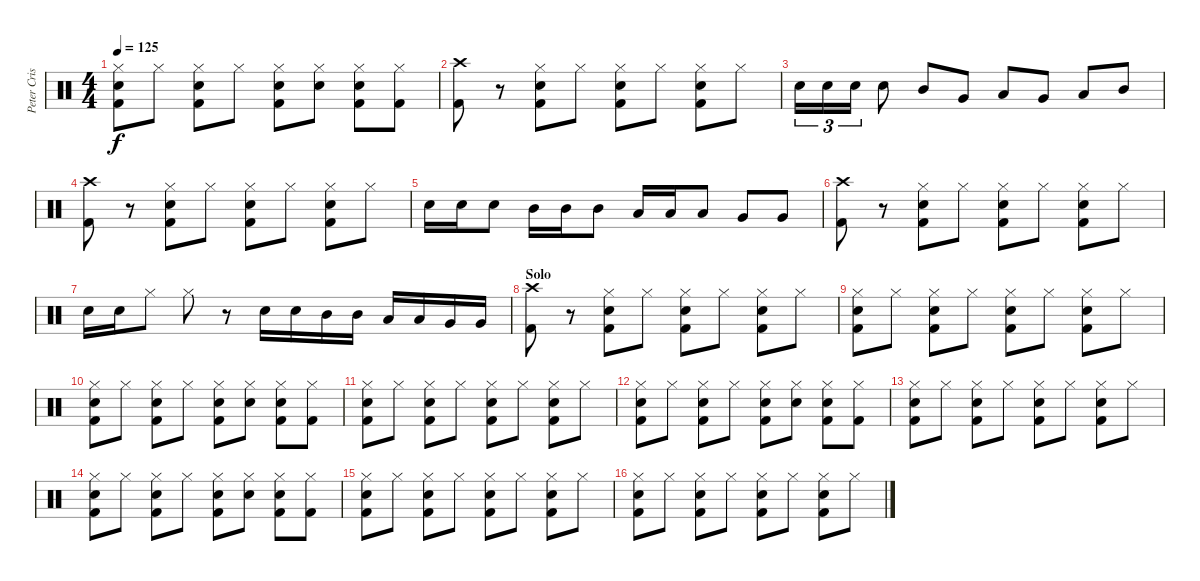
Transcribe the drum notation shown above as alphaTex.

\track ("Peter Criss" "Peter Cris") {instrument percussion}
\staff {score}
\articulation defaults
\ts (4 4)
\tempo 125
\clef neutral
\ks c
("Hi-Hat (closed)" "Electric Snare (hit)" "Kick (hit) 2").8{dy f} "Hi-Hat (closed)".8 ("Hi-Hat (closed)" "Electric Snare (hit)" "Kick (hit) 2").8 "Hi-Hat (closed)".8 ("Hi-Hat (closed)" "Electric Snare (hit)" "Kick (hit) 2").8 ("Hi-Hat (closed)" "Electric Snare (hit)").8 ("Hi-Hat (closed)" "Electric Snare (hit)" "Kick (hit) 2").8 ("Hi-Hat (closed)" "Kick (hit) 2").8 |
("Crash high (hit)" "Kick (hit) 2").8 r.8 ("Hi-Hat (closed)" "Electric Snare (hit)" "Kick (hit) 2").8 "Hi-Hat (closed)".8 ("Hi-Hat (closed)" "Electric Snare (hit)" "Kick (hit) 2").8 "Hi-Hat (closed)".8 ("Hi-Hat (closed)" "Electric Snare (hit)" "Kick (hit) 2").8 "Hi-Hat (closed)".8 |
"Electric Snare (hit)".16{tu (3 2)} "Electric Snare (hit)".16{tu (3 2)} "Electric Snare (hit)".16{tu (3 2)} "Electric Snare (hit)".8 "Mid Tom (hit)".8 "Very Low Tom (hit)".8 "Low Tom (hit)".8 "Very Low Tom (hit)".8 "Low Tom (hit)".8 "Mid Tom (hit)".8 |
("Crash high (hit)" "Kick (hit) 2").8 r.8 ("Hi-Hat (closed)" "Electric Snare (hit)" "Kick (hit) 2").8 "Hi-Hat (closed)".8 ("Hi-Hat (closed)" "Electric Snare (hit)" "Kick (hit) 2").8 "Hi-Hat (closed)".8 ("Hi-Hat (closed)" "Electric Snare (hit)" "Kick (hit) 2").8 "Hi-Hat (closed)".8 |
"Electric Snare (hit)".16 "Electric Snare (hit)".16 "Electric Snare (hit)".8 "Mid Tom (hit)".16 "Mid Tom (hit)".16 "Mid Tom (hit)".8 "Low Tom (hit)".16 "Low Tom (hit)".16 "Low Tom (hit)".8 "Very Low Tom (hit)".8 "Very Low Tom (hit)".8 |
("Crash high (hit)" "Kick (hit) 2").8 r.8 ("Hi-Hat (closed)" "Electric Snare (hit)" "Kick (hit) 2").8 "Hi-Hat (closed)".8 ("Hi-Hat (closed)" "Electric Snare (hit)" "Kick (hit) 2").8 "Hi-Hat (closed)".8 ("Hi-Hat (closed)" "Electric Snare (hit)" "Kick (hit) 2").8 "Hi-Hat (closed)".8 |
"Electric Snare (hit)".16 "Electric Snare (hit)".16 "Hi-Hat (closed)".8 "Hi-Hat (closed)".8 r.8 "Electric Snare (hit)".16 "Electric Snare (hit)".16 "Mid Tom (hit)".16 "Mid Tom (hit)".16 "Low Tom (hit)".16 "Low Tom (hit)".16 "Very Low Tom (hit)".16 "Very Low Tom (hit)".16 |
\section ("" "Solo")
("Crash high (hit)" "Kick (hit) 2").8 r.8 ("Hi-Hat (closed)" "Electric Snare (hit)" "Kick (hit) 2").8 "Hi-Hat (closed)".8 ("Hi-Hat (closed)" "Electric Snare (hit)" "Kick (hit) 2").8 "Hi-Hat (closed)".8 ("Hi-Hat (closed)" "Electric Snare (hit)" "Kick (hit) 2").8 "Hi-Hat (closed)".8 |
("Hi-Hat (closed)" "Electric Snare (hit)" "Kick (hit) 2").8 "Hi-Hat (closed)".8 ("Hi-Hat (closed)" "Electric Snare (hit)" "Kick (hit) 2").8 "Hi-Hat (closed)".8 ("Hi-Hat (closed)" "Electric Snare (hit)" "Kick (hit) 2").8 "Hi-Hat (closed)".8 ("Hi-Hat (closed)" "Electric Snare (hit)" "Kick (hit) 2").8 "Hi-Hat (closed)".8 |
("Hi-Hat (closed)" "Electric Snare (hit)" "Kick (hit) 2").8 "Hi-Hat (closed)".8 ("Hi-Hat (closed)" "Electric Snare (hit)" "Kick (hit) 2").8 "Hi-Hat (closed)".8 ("Hi-Hat (closed)" "Electric Snare (hit)" "Kick (hit) 2").8 ("Hi-Hat (closed)" "Electric Snare (hit)").8 ("Hi-Hat (closed)" "Electric Snare (hit)" "Kick (hit) 2").8 ("Hi-Hat (closed)" "Kick (hit) 2").8 |
("Hi-Hat (closed)" "Electric Snare (hit)" "Kick (hit) 2").8 "Hi-Hat (closed)".8 ("Hi-Hat (closed)" "Electric Snare (hit)" "Kick (hit) 2").8 "Hi-Hat (closed)".8 ("Hi-Hat (closed)" "Electric Snare (hit)" "Kick (hit) 2").8 "Hi-Hat (closed)".8 ("Hi-Hat (closed)" "Electric Snare (hit)" "Kick (hit) 2").8 "Hi-Hat (closed)".8 |
("Hi-Hat (closed)" "Electric Snare (hit)" "Kick (hit) 2").8 "Hi-Hat (closed)".8 ("Hi-Hat (closed)" "Electric Snare (hit)" "Kick (hit) 2").8 "Hi-Hat (closed)".8 ("Hi-Hat (closed)" "Electric Snare (hit)" "Kick (hit) 2").8 ("Hi-Hat (closed)" "Electric Snare (hit)").8 ("Hi-Hat (closed)" "Electric Snare (hit)" "Kick (hit) 2").8 ("Hi-Hat (closed)" "Kick (hit) 2").8 |
("Hi-Hat (closed)" "Electric Snare (hit)" "Kick (hit) 2").8 "Hi-Hat (closed)".8 ("Hi-Hat (closed)" "Electric Snare (hit)" "Kick (hit) 2").8 "Hi-Hat (closed)".8 ("Hi-Hat (closed)" "Electric Snare (hit)" "Kick (hit) 2").8 "Hi-Hat (closed)".8 ("Hi-Hat (closed)" "Electric Snare (hit)" "Kick (hit) 2").8 "Hi-Hat (closed)".8 |
("Hi-Hat (closed)" "Electric Snare (hit)" "Kick (hit) 2").8 "Hi-Hat (closed)".8 ("Hi-Hat (closed)" "Electric Snare (hit)" "Kick (hit) 2").8 "Hi-Hat (closed)".8 ("Hi-Hat (closed)" "Electric Snare (hit)" "Kick (hit) 2").8 ("Hi-Hat (closed)" "Electric Snare (hit)").8 ("Hi-Hat (closed)" "Electric Snare (hit)" "Kick (hit) 2").8 ("Hi-Hat (closed)" "Kick (hit) 2").8 |
("Hi-Hat (closed)" "Electric Snare (hit)" "Kick (hit) 2").8 "Hi-Hat (closed)".8 ("Hi-Hat (closed)" "Electric Snare (hit)" "Kick (hit) 2").8 "Hi-Hat (closed)".8 ("Hi-Hat (closed)" "Electric Snare (hit)" "Kick (hit) 2").8 "Hi-Hat (closed)".8 ("Hi-Hat (closed)" "Electric Snare (hit)" "Kick (hit) 2").8 "Hi-Hat (closed)".8 |
("Hi-Hat (closed)" "Electric Snare (hit)" "Kick (hit) 2").8 "Hi-Hat (closed)".8 ("Hi-Hat (closed)" "Electric Snare (hit)" "Kick (hit) 2").8 "Hi-Hat (closed)".8 ("Hi-Hat (closed)" "Electric Snare (hit)" "Kick (hit) 2").8 "Hi-Hat (closed)".8 ("Hi-Hat (closed)" "Electric Snare (hit)" "Kick (hit) 2").8 "Hi-Hat (closed)".8
